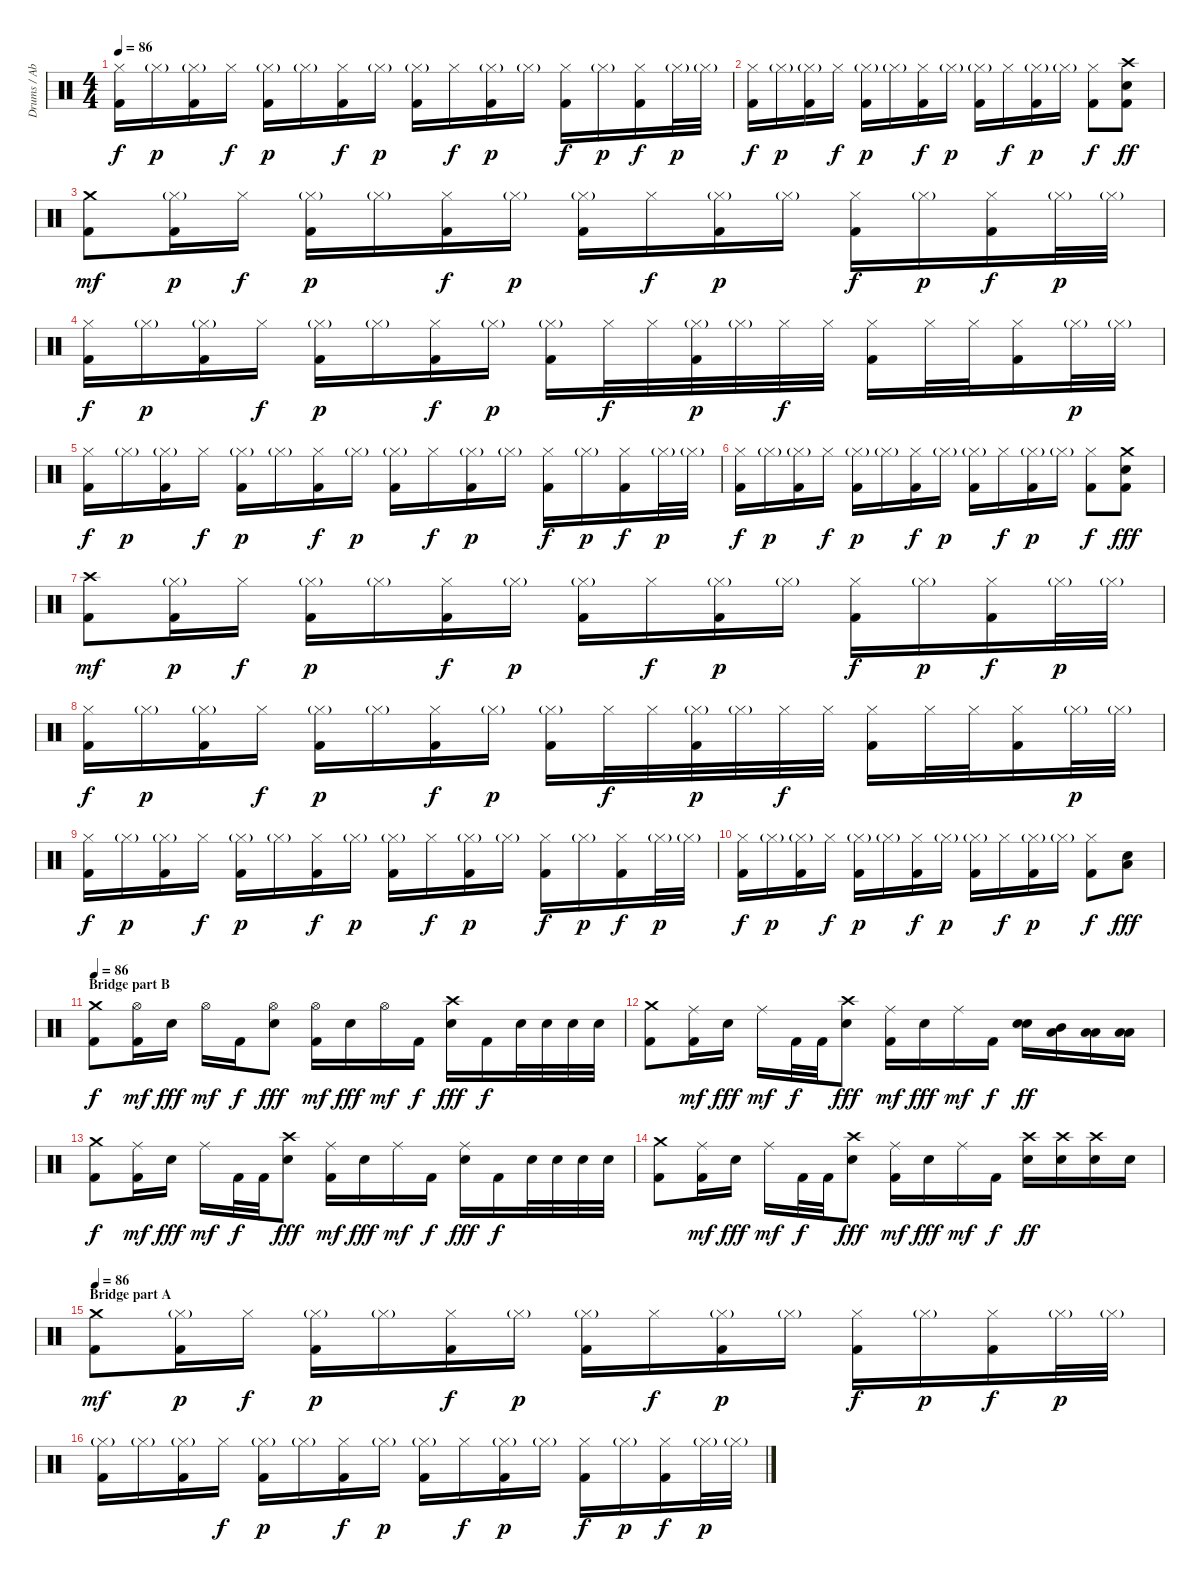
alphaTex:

\track ("Drums / Abe Cunningham" "Drums / Ab") {instrument percussion}
\staff {score}
\articulation defaults
\ts (4 4)
\tempo 86
\clef neutral
\ks c
("Hi-Hat (closed)" "Kick (hit) 2").16{dy f} "Hi-Hat (closed)"{g}.16{dy p} ("Hi-Hat (closed)"{g} "Kick (hit) 2").16 "Hi-Hat (closed)".16{dy f} ("Hi-Hat (closed)"{g} "Kick (hit) 2").16{dy p} "Hi-Hat (closed)"{g}.16 ("Hi-Hat (closed)" "Kick (hit) 2").16{dy f} "Hi-Hat (closed)"{g}.16{dy p} ("Hi-Hat (closed)"{g} "Kick (hit) 2").16 "Hi-Hat (closed)".16{dy f} ("Hi-Hat (closed)"{g} "Kick (hit) 2").16{dy p} "Hi-Hat (closed)"{g}.16 ("Hi-Hat (closed)" "Kick (hit) 2").16{dy f} "Hi-Hat (closed)"{g}.16{dy p} ("Hi-Hat (closed)" "Kick (hit) 2").16{dy f} "Hi-Hat (closed)"{g}.32{dy p} "Hi-Hat (closed)"{g}.32 |
("Hi-Hat (closed)" "Kick (hit) 2").16{dy f} "Hi-Hat (closed)"{g}.16{dy p} ("Hi-Hat (closed)"{g} "Kick (hit) 2").16 "Hi-Hat (closed)".16{dy f} ("Hi-Hat (closed)"{g} "Kick (hit) 2").16{dy p} "Hi-Hat (closed)"{g}.16 ("Hi-Hat (closed)" "Kick (hit) 2").16{dy f} "Hi-Hat (closed)"{g}.16{dy p} ("Hi-Hat (closed)"{g} "Kick (hit) 2").16 "Hi-Hat (closed)".16{dy f} ("Hi-Hat (closed)"{g} "Kick (hit) 2").16{dy p} "Hi-Hat (closed)"{g}.16 ("Hi-Hat (closed)" "Kick (hit) 2").8{dy f} ("Crash high (hit)" "Electric Snare (hit)" "Kick (hit) 2").8{dy ff} |
("Crash medium (hit)" "Kick (hit) 2").8{dy mf} ("Hi-Hat (closed)"{g} "Kick (hit) 2").16{dy p} "Hi-Hat (closed)".16{dy f} ("Hi-Hat (closed)"{g} "Kick (hit) 2").16{dy p} "Hi-Hat (closed)"{g}.16 ("Hi-Hat (closed)" "Kick (hit) 2").16{dy f} "Hi-Hat (closed)"{g}.16{dy p} ("Hi-Hat (closed)"{g} "Kick (hit) 2").16 "Hi-Hat (closed)".16{dy f} ("Hi-Hat (closed)"{g} "Kick (hit) 2").16{dy p} "Hi-Hat (closed)"{g}.16 ("Hi-Hat (closed)" "Kick (hit) 2").16{dy f} "Hi-Hat (closed)"{g}.16{dy p} ("Hi-Hat (closed)" "Kick (hit) 2").16{dy f} "Hi-Hat (closed)"{g}.32{dy p} "Hi-Hat (closed)"{g}.32 |
("Hi-Hat (closed)" "Kick (hit) 2").16{dy f} "Hi-Hat (closed)"{g}.16{dy p} ("Hi-Hat (closed)"{g} "Kick (hit) 2").16 "Hi-Hat (closed)".16{dy f} ("Hi-Hat (closed)"{g} "Kick (hit) 2").16{dy p} "Hi-Hat (closed)"{g}.16 ("Hi-Hat (closed)" "Kick (hit) 2").16{dy f} "Hi-Hat (closed)"{g}.16{dy p} ("Hi-Hat (closed)"{g} "Kick (hit) 2").16 "Hi-Hat (closed)".32{dy f} "Hi-Hat (closed)".32 ("Hi-Hat (closed)"{g} "Kick (hit) 2").32{dy p} "Hi-Hat (closed)"{g}.32 "Hi-Hat (closed)".32{dy f} "Hi-Hat (closed)".32 ("Hi-Hat (closed)" "Kick (hit) 2").16 "Hi-Hat (closed)".32 "Hi-Hat (closed)".32 ("Hi-Hat (closed)" "Kick (hit) 2").16 "Hi-Hat (closed)"{g}.32{dy p} "Hi-Hat (closed)"{g}.32 |
("Hi-Hat (closed)" "Kick (hit) 2").16{dy f} "Hi-Hat (closed)"{g}.16{dy p} ("Hi-Hat (closed)"{g} "Kick (hit) 2").16 "Hi-Hat (closed)".16{dy f} ("Hi-Hat (closed)"{g} "Kick (hit) 2").16{dy p} "Hi-Hat (closed)"{g}.16 ("Hi-Hat (closed)" "Kick (hit) 2").16{dy f} "Hi-Hat (closed)"{g}.16{dy p} ("Hi-Hat (closed)"{g} "Kick (hit) 2").16 "Hi-Hat (closed)".16{dy f} ("Hi-Hat (closed)"{g} "Kick (hit) 2").16{dy p} "Hi-Hat (closed)"{g}.16 ("Hi-Hat (closed)" "Kick (hit) 2").16{dy f} "Hi-Hat (closed)"{g}.16{dy p} ("Hi-Hat (closed)" "Kick (hit) 2").16{dy f} "Hi-Hat (closed)"{g}.32{dy p} "Hi-Hat (closed)"{g}.32 |
("Hi-Hat (closed)" "Kick (hit) 2").16{dy f} "Hi-Hat (closed)"{g}.16{dy p} ("Hi-Hat (closed)"{g} "Kick (hit) 2").16 "Hi-Hat (closed)".16{dy f} ("Hi-Hat (closed)"{g} "Kick (hit) 2").16{dy p} "Hi-Hat (closed)"{g}.16 ("Hi-Hat (closed)" "Kick (hit) 2").16{dy f} "Hi-Hat (closed)"{g}.16{dy p} ("Hi-Hat (closed)"{g} "Kick (hit) 2").16 "Hi-Hat (closed)".16{dy f} ("Hi-Hat (closed)"{g} "Kick (hit) 2").16{dy p} "Hi-Hat (closed)"{g}.16 ("Hi-Hat (closed)" "Kick (hit) 2").8{dy f} ("Crash medium (hit)" "Electric Snare (hit)" "Kick (hit) 2").8{dy fff} |
("Crash high (hit)" "Kick (hit) 2").8{dy mf} ("Hi-Hat (closed)"{g} "Kick (hit) 2").16{dy p} "Hi-Hat (closed)".16{dy f} ("Hi-Hat (closed)"{g} "Kick (hit) 2").16{dy p} "Hi-Hat (closed)"{g}.16 ("Hi-Hat (closed)" "Kick (hit) 2").16{dy f} "Hi-Hat (closed)"{g}.16{dy p} ("Hi-Hat (closed)"{g} "Kick (hit) 2").16 "Hi-Hat (closed)".16{dy f} ("Hi-Hat (closed)"{g} "Kick (hit) 2").16{dy p} "Hi-Hat (closed)"{g}.16 ("Hi-Hat (closed)" "Kick (hit) 2").16{dy f} "Hi-Hat (closed)"{g}.16{dy p} ("Hi-Hat (closed)" "Kick (hit) 2").16{dy f} "Hi-Hat (closed)"{g}.32{dy p} "Hi-Hat (closed)"{g}.32 |
("Hi-Hat (closed)" "Kick (hit) 2").16{dy f} "Hi-Hat (closed)"{g}.16{dy p} ("Hi-Hat (closed)"{g} "Kick (hit) 2").16 "Hi-Hat (closed)".16{dy f} ("Hi-Hat (closed)"{g} "Kick (hit) 2").16{dy p} "Hi-Hat (closed)"{g}.16 ("Hi-Hat (closed)" "Kick (hit) 2").16{dy f} "Hi-Hat (closed)"{g}.16{dy p} ("Hi-Hat (closed)"{g} "Kick (hit) 2").16 "Hi-Hat (closed)".32{dy f} "Hi-Hat (closed)".32 ("Hi-Hat (closed)"{g} "Kick (hit) 2").32{dy p} "Hi-Hat (closed)"{g}.32 "Hi-Hat (closed)".32{dy f} "Hi-Hat (closed)".32 ("Hi-Hat (closed)" "Kick (hit) 2").16 "Hi-Hat (closed)".32 "Hi-Hat (closed)".32 ("Hi-Hat (closed)" "Kick (hit) 2").16 "Hi-Hat (closed)"{g}.32{dy p} "Hi-Hat (closed)"{g}.32 |
("Hi-Hat (closed)" "Kick (hit) 2").16{dy f} "Hi-Hat (closed)"{g}.16{dy p} ("Hi-Hat (closed)"{g} "Kick (hit) 2").16 "Hi-Hat (closed)".16{dy f} ("Hi-Hat (closed)"{g} "Kick (hit) 2").16{dy p} "Hi-Hat (closed)"{g}.16 ("Hi-Hat (closed)" "Kick (hit) 2").16{dy f} "Hi-Hat (closed)"{g}.16{dy p} ("Hi-Hat (closed)"{g} "Kick (hit) 2").16 "Hi-Hat (closed)".16{dy f} ("Hi-Hat (closed)"{g} "Kick (hit) 2").16{dy p} "Hi-Hat (closed)"{g}.16 ("Hi-Hat (closed)" "Kick (hit) 2").16{dy f} "Hi-Hat (closed)"{g}.16{dy p} ("Hi-Hat (closed)" "Kick (hit) 2").16{dy f} "Hi-Hat (closed)"{g}.32{dy p} "Hi-Hat (closed)"{g}.32 |
("Hi-Hat (closed)" "Kick (hit) 2").16{dy f} "Hi-Hat (closed)"{g}.16{dy p} ("Hi-Hat (closed)"{g} "Kick (hit) 2").16 "Hi-Hat (closed)".16{dy f} ("Hi-Hat (closed)"{g} "Kick (hit) 2").16{dy p} "Hi-Hat (closed)"{g}.16 ("Hi-Hat (closed)" "Kick (hit) 2").16{dy f} "Hi-Hat (closed)"{g}.16{dy p} ("Hi-Hat (closed)"{g} "Kick (hit) 2").16 "Hi-Hat (closed)".16{dy f} ("Hi-Hat (closed)"{g} "Kick (hit) 2").16{dy p} "Hi-Hat (closed)"{g}.16 ("Hi-Hat (closed)" "Kick (hit) 2").8{dy f} ("Electric Snare (hit)" "Low Floor Tom (hit)").8{bd 30 dy fff} |
\section ("" "Bridge part B")
\tempo 86
("Crash medium (hit)" "Kick (hit) 2").8{dy f} ("Hi-Hat (open)" "Kick (hit) 2").16{dy mf} "Electric Snare (hit)".16{dy fff} "Hi-Hat (open)".16{dy mf} "Kick (hit) 2".16{dy f} ("Hi-Hat (open)" "Electric Snare (hit)").8{dy fff} ("Hi-Hat (open)" "Kick (hit) 2").16{dy mf} "Electric Snare (hit)".16{dy fff} "Hi-Hat (open)".16{dy mf} "Kick (hit) 2".16{dy f} ("Crash high (hit)" "Electric Snare (hit)").16{dy fff} "Kick (hit) 2".16{dy f} "Electric Snare (hit)".32 "Electric Snare (hit)".32 "Electric Snare (hit)".32 "Electric Snare (hit)".32 |
("Crash medium (hit)" "Kick (hit) 2").8 ("Ride (middle)" "Kick (hit) 2").16{dy mf} "Electric Snare (hit)".16{dy fff} "Ride (middle)".16{dy mf} "Kick (hit) 2".32{dy f} "Kick (hit) 2".32 ("Crash high (hit)" "Electric Snare (hit)").8{dy fff} ("Ride (middle)" "Kick (hit) 2").16{dy mf} "Electric Snare (hit)".16{dy fff} "Ride (middle)".16{dy mf} "Kick (hit) 2".16{dy f} ("Electric Snare (hit)" "Electric Snare (hit)").16{bd 60 dy ff} ("Mid Tom (hit)" "Low Floor Tom (hit)").16{bd 30} ("Low Tom (hit)" "Low Floor Tom (hit)").16{bd 30} ("Low Tom (hit)" "Low Floor Tom (hit)").16{bd 30} |
("Crash medium (hit)" "Kick (hit) 2").8{dy f} ("Ride (middle)" "Kick (hit) 2").16{dy mf} "Electric Snare (hit)".16{dy fff} "Ride (middle)".16{dy mf} "Kick (hit) 2".32{dy f} "Kick (hit) 2".32 ("Crash high (hit)" "Electric Snare (hit)").8{dy fff} ("Ride (middle)" "Kick (hit) 2").16{dy mf} "Electric Snare (hit)".16{dy fff} "Ride (middle)".16{dy mf} "Kick (hit) 2".16{dy f} ("Ride (middle)" "Electric Snare (hit)").16{dy fff} "Kick (hit) 2".16{dy f} "Electric Snare (hit)".32 "Electric Snare (hit)".32 "Electric Snare (hit)".32 "Electric Snare (hit)".32 |
("Crash medium (hit)" "Kick (hit) 2").8 ("Ride (middle)" "Kick (hit) 2").16{dy mf} "Electric Snare (hit)".16{dy fff} "Ride (middle)".16{dy mf} "Kick (hit) 2".32{dy f} "Kick (hit) 2".32 ("Crash high (hit)" "Electric Snare (hit)").8{dy fff} ("Ride (middle)" "Kick (hit) 2").16{dy mf} "Electric Snare (hit)".16{dy fff} "Ride (middle)".16{dy mf} "Kick (hit) 2".16{dy f} ("Crash high (hit)" "Electric Snare (hit)").16{dy ff} ("Crash high (hit)" "Electric Snare (hit)").16 ("Crash high (hit)" "Electric Snare (hit)").16 "Electric Snare (hit)".16 |
\section ("" "Bridge part A")
\tempo 86
("Crash medium (hit)" "Kick (hit) 2").8{dy mf} ("Hi-Hat (closed)"{g} "Kick (hit) 2").16{dy p} "Hi-Hat (closed)".16{dy f} ("Hi-Hat (closed)"{g} "Kick (hit) 2").16{dy p} "Hi-Hat (closed)"{g}.16 ("Hi-Hat (closed)" "Kick (hit) 2").16{dy f} "Hi-Hat (closed)"{g}.16{dy p} ("Hi-Hat (closed)"{g} "Kick (hit) 2").16 "Hi-Hat (closed)".16{dy f} ("Hi-Hat (closed)"{g} "Kick (hit) 2").16{dy p} "Hi-Hat (closed)"{g}.16 ("Hi-Hat (closed)" "Kick (hit) 2").16{dy f} "Hi-Hat (closed)"{g}.16{dy p} ("Hi-Hat (closed)" "Kick (hit) 2").16{dy f} "Hi-Hat (closed)"{g}.32{dy p} "Hi-Hat (closed)"{g}.32 |
("Hi-Hat (closed)"{g} "Kick (hit) 2").16 "Hi-Hat (closed)"{g}.16 ("Hi-Hat (closed)"{g} "Kick (hit) 2").16 "Hi-Hat (closed)".16{dy f} ("Hi-Hat (closed)"{g} "Kick (hit) 2").16{dy p} "Hi-Hat (closed)"{g}.16 ("Hi-Hat (closed)" "Kick (hit) 2").16{dy f} "Hi-Hat (closed)"{g}.16{dy p} ("Hi-Hat (closed)"{g} "Kick (hit) 2").16 "Hi-Hat (closed)".16{dy f} ("Hi-Hat (closed)"{g} "Kick (hit) 2").16{dy p} "Hi-Hat (closed)"{g}.16 ("Hi-Hat (closed)" "Kick (hit) 2").16{dy f} "Hi-Hat (closed)"{g}.16{dy p} ("Hi-Hat (closed)" "Kick (hit) 2").16{dy f} "Hi-Hat (closed)"{g}.32{dy p} "Hi-Hat (closed)"{g}.32
